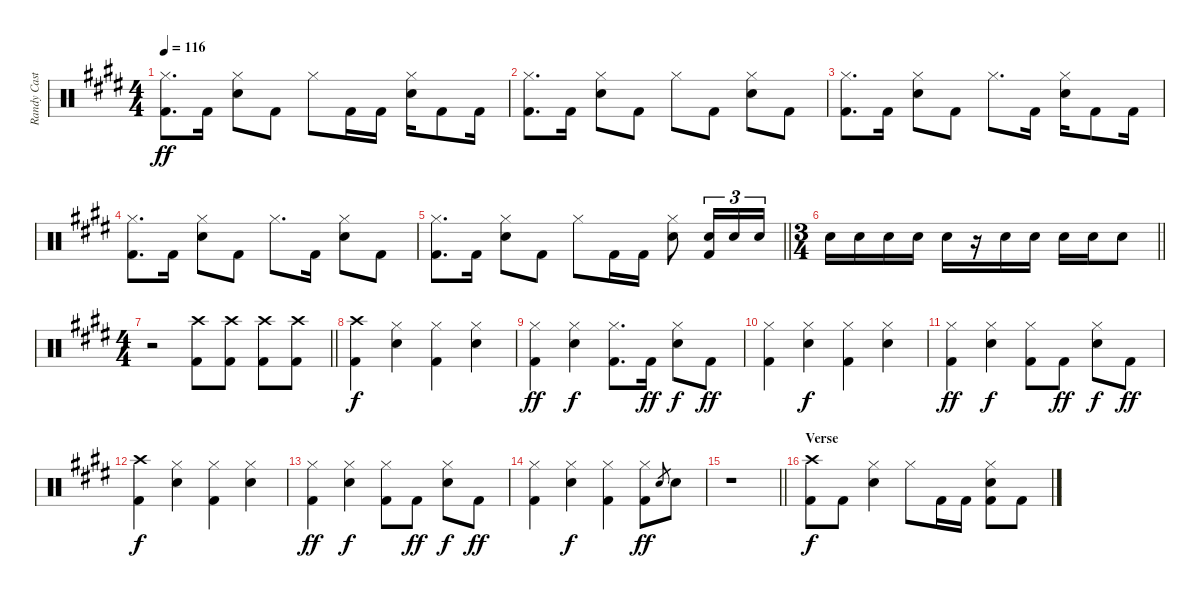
\track ("Randy Castillo" "Randy Cast") {instrument percussion}
\staff {score}
\articulation defaults
\ts (4 4)
\tempo 116
\clef neutral
\ks e
("Hi-Hat (closed)" "Kick (hit) 2").8{d dy ff} "Kick (hit) 2".16 ("Hi-Hat (closed)" "Snare (hit) 2").8 "Kick (hit) 2".8 "Hi-Hat (closed)".8 "Kick (hit) 2".16 "Kick (hit) 2".16 ("Hi-Hat (closed)" "Snare (hit) 2").16 "Kick (hit) 2".8 "Kick (hit) 2".16 |
("Hi-Hat (closed)" "Kick (hit) 2").8{d} "Kick (hit) 2".16 ("Hi-Hat (closed)" "Snare (hit) 2").8 "Kick (hit) 2".8 "Hi-Hat (closed)".8 "Kick (hit) 2".8 ("Hi-Hat (closed)" "Snare (hit) 2").8 "Kick (hit) 2".8 |
("Hi-Hat (closed)" "Kick (hit) 2").8{d} "Kick (hit) 2".16 ("Hi-Hat (closed)" "Snare (hit) 2").8 "Kick (hit) 2".8 "Hi-Hat (closed)".8{d} "Kick (hit) 2".16 ("Hi-Hat (closed)" "Snare (hit) 2").16 "Kick (hit) 2".8 "Kick (hit) 2".16 |
("Hi-Hat (closed)" "Kick (hit) 2").8{d} "Kick (hit) 2".16 ("Hi-Hat (closed)" "Snare (hit) 2").8 "Kick (hit) 2".8 "Hi-Hat (closed)".8{d} "Kick (hit) 2".16 ("Hi-Hat (closed)" "Snare (hit) 2").8 "Kick (hit) 2".8 |
\barLineRight lightlight
("Hi-Hat (closed)" "Kick (hit) 2").8{d} "Kick (hit) 2".16 ("Hi-Hat (closed)" "Snare (hit) 2").8 "Kick (hit) 2".8 "Hi-Hat (closed)".8 "Kick (hit) 2".16 "Kick (hit) 2".16 ("Hi-Hat (closed)" "Snare (hit) 2").8 ("Snare (hit) 2" "Kick (hit) 2").16{tu (3 2)} "Snare (hit) 2".16{tu (3 2)} "Snare (hit) 2".16{tu (3 2)} |
\ts (3 4)
\barLineRight lightlight "Snare (hit) 2".16 "Snare (hit) 2".16 "Snare (hit) 2".16 "Snare (hit) 2".16 "Snare (hit) 2".16
r.16 "Snare (hit) 2".16 "Snare (hit) 2".16 "Snare (hit) 2".16 "Snare (hit) 2".16 "Snare (hit) 2".8 |
\ts (4 4)
\barLineRight lightlight
r.2 ("Kick (hit) 2" "Crash high (hit)").8 ("Kick (hit) 2" "Crash high (hit)").8 ("Kick (hit) 2" "Crash high (hit)").8 ("Kick (hit) 2" "Crash high (hit)").8 |
("Kick (hit) 2" "Crash high (hit)").4{dy f} ("Hi-Hat (closed)" "Snare (hit) 2").4 ("Hi-Hat (closed)" "Kick (hit) 2").4 ("Hi-Hat (closed)" "Snare (hit) 2").4 |
("Hi-Hat (closed)" "Kick (hit) 2").4{dy ff} ("Hi-Hat (closed)" "Snare (hit) 2").4{dy f} ("Hi-Hat (closed)" "Kick (hit) 2").8{d} "Kick (hit) 2".16{dy ff} ("Hi-Hat (closed)" "Snare (hit) 2").8{dy f} "Kick (hit) 2".8{dy ff} |
("Hi-Hat (closed)" "Kick (hit) 2").4 ("Hi-Hat (closed)" "Snare (hit) 2").4{dy f} ("Hi-Hat (closed)" "Kick (hit) 2").4 ("Hi-Hat (closed)" "Snare (hit) 2").4 |
("Hi-Hat (closed)" "Kick (hit) 2").4{dy ff} ("Hi-Hat (closed)" "Snare (hit) 2").4{dy f} ("Hi-Hat (closed)" "Kick (hit) 2").8 "Kick (hit) 2".8{dy ff} ("Hi-Hat (closed)" "Snare (hit) 2").8{dy f} "Kick (hit) 2".8{dy ff} |
("Kick (hit) 2" "Crash high (hit)").4{dy f} ("Hi-Hat (closed)" "Snare (hit) 2").4 ("Hi-Hat (closed)" "Kick (hit) 2").4 ("Hi-Hat (closed)" "Snare (hit) 2").4 |
("Hi-Hat (closed)" "Kick (hit) 2").4{dy ff} ("Hi-Hat (closed)" "Snare (hit) 2").4{dy f} ("Hi-Hat (closed)" "Kick (hit) 2").8 "Kick (hit) 2".8{dy ff} ("Hi-Hat (closed)" "Snare (hit) 2").8{dy f} "Kick (hit) 2".8{dy ff} |
("Hi-Hat (closed)" "Kick (hit) 2").4 ("Hi-Hat (closed)" "Snare (hit) 2").4{dy f} ("Hi-Hat (closed)" "Kick (hit) 2").4 ("Hi-Hat (closed)" "Kick (hit) 2").8{dy ff} "Snare (hit) 2".8{gr} "Snare (hit) 2".8 |
\barLineRight lightlight
r.1 |
\section ("" "Verse")
("Kick (hit) 2" "Crash high (hit)").8{dy f} "Kick (hit) 2".8 ("Hi-Hat (closed)" "Snare (hit) 2").4 "Hi-Hat (closed)".8 "Kick (hit) 2".16 "Kick (hit) 2".16 ("Hi-Hat (closed)" "Snare (hit) 2" "Kick (hit) 2").8 "Kick (hit) 2".8
